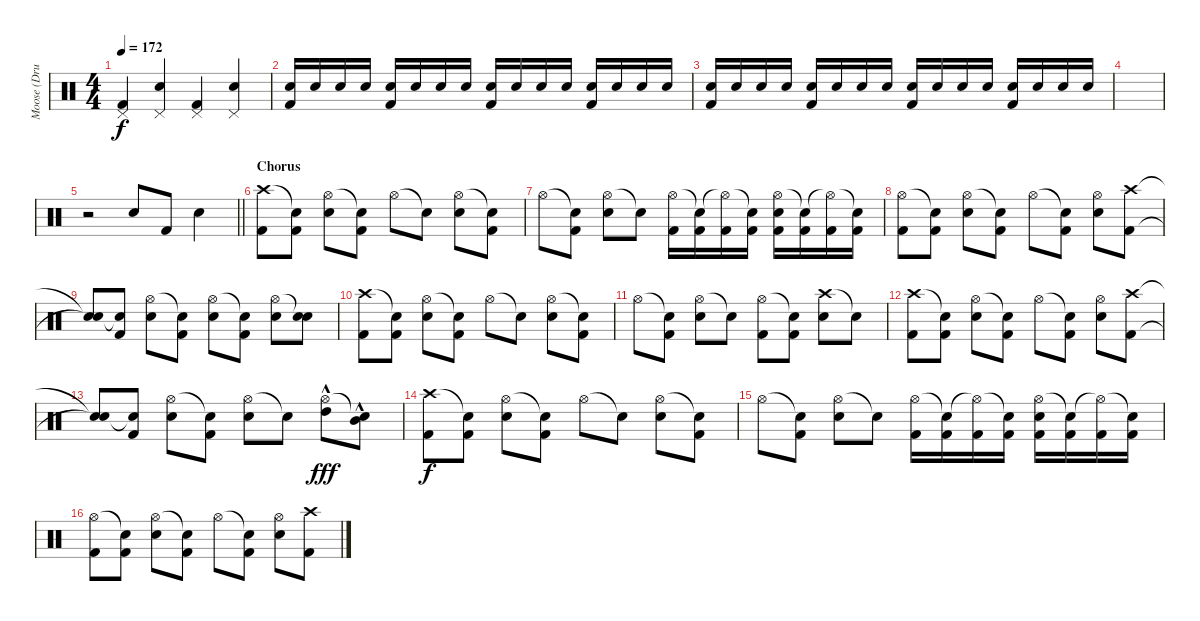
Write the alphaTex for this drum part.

\track ("Moose (Drums)" "Moose (Dru") {instrument percussion}
\staff {score}
\articulation defaults
\ts (4 4)
\tempo 172
\clef neutral
\ks c
("Pedal Hi-Hat (hit)" "Kick (hit) 2").4{dy f} ("Pedal Hi-Hat (hit)" "Electric Snare (hit)").4 ("Pedal Hi-Hat (hit)" "Kick (hit) 2").4 ("Pedal Hi-Hat (hit)" "Electric Snare (hit)").4 |
("Electric Snare (hit)" "Kick (hit) 2").16 "Electric Snare (hit)".16 "Electric Snare (hit)".16 "Electric Snare (hit)".16 ("Electric Snare (hit)" "Kick (hit) 2").16 "Electric Snare (hit)".16 "Electric Snare (hit)".16 "Electric Snare (hit)".16 ("Electric Snare (hit)" "Kick (hit) 2").16 "Electric Snare (hit)".16 "Electric Snare (hit)".16 "Electric Snare (hit)".16 ("Electric Snare (hit)" "Kick (hit) 2").16 "Electric Snare (hit)".16 "Electric Snare (hit)".16 "Electric Snare (hit)".16 |
("Electric Snare (hit)" "Kick (hit) 2").16 "Electric Snare (hit)".16 "Electric Snare (hit)".16 "Electric Snare (hit)".16 ("Electric Snare (hit)" "Kick (hit) 2").16 "Electric Snare (hit)".16 "Electric Snare (hit)".16 "Electric Snare (hit)".16 ("Electric Snare (hit)" "Kick (hit) 2").16 "Electric Snare (hit)".16 "Electric Snare (hit)".16 "Electric Snare (hit)".16 ("Electric Snare (hit)" "Kick (hit) 2").16 "Electric Snare (hit)".16 "Electric Snare (hit)".16 "Electric Snare (hit)".16 |
|
\barLineRight lightlight
r.2 "Electric Snare (hit)".8 "Kick (hit) 2".8 "Electric Snare (hit)".4 |
\section ("" "Chorus")
("Crash high (hit)" "Kick (hit) 2").8 ("Snare (hit)"{t} "Kick (hit) 2").8 ("Hi-Hat (open)" "Electric Snare (hit)").8 ("Snare (hit)"{t} "Kick (hit) 2").8 "Hi-Hat (open)".8 "Snare (hit)"{t}.8 ("Hi-Hat (open)" "Electric Snare (hit)").8 ("Snare (hit)"{t} "Kick (hit) 2").8 |
"Hi-Hat (open)".8 ("Snare (hit)"{t} "Kick (hit) 2").8 ("Hi-Hat (open)" "Electric Snare (hit)").8 "Snare (hit)"{t}.8 ("Hi-Hat (open)" "Kick (hit) 2").16 ("Snare (hit)"{t} "Kick (hit) 2").16 ("Hi-Hat (open)"{t} "Kick (hit) 2").16 ("Snare (hit)"{t} "Kick (hit) 2").16 ("Hi-Hat (open)" "Electric Snare (hit)" "Kick (hit) 2").16 ("Snare (hit)"{t} "Kick (hit) 2").16 ("Hi-Hat (open)"{t} "Kick (hit) 2").16 ("Snare (hit)"{t} "Kick (hit) 2").16 |
("Hi-Hat (open)" "Kick (hit) 2").8 ("Snare (hit)"{t} "Kick (hit) 2").8 ("Hi-Hat (open)" "Electric Snare (hit)").8 ("Snare (hit)"{t} "Kick (hit) 2").8 "Hi-Hat (open)".8 ("Snare (hit)"{t} "Kick (hit) 2").8 ("Hi-Hat (open)" "Electric Snare (hit)").8 ("Crash high (hit)" "Kick (hit) 2").8 |
("Snare (hit)"{t} "Snare (hit)"{t}).8 ("Snare (hit)"{t} "Kick (hit) 2").8 ("Hi-Hat (open)" "Electric Snare (hit)").8 ("Snare (hit)"{t} "Kick (hit) 2").8 ("Hi-Hat (open)" "Electric Snare (hit)").8 ("Snare (hit)"{t} "Kick (hit) 2").8 ("Hi-Hat (open)" "Electric Snare (hit)").8 ("Snare (hit)"{t} "Electric Snare (hit)").8 |
("Crash high (hit)" "Kick (hit) 2").8 ("Snare (hit)"{t} "Kick (hit) 2").8 ("Hi-Hat (open)" "Electric Snare (hit)").8 ("Snare (hit)"{t} "Kick (hit) 2").8 "Hi-Hat (open)".8 "Snare (hit)"{t}.8 ("Hi-Hat (open)" "Electric Snare (hit)").8 ("Snare (hit)"{t} "Kick (hit) 2").8 |
"Hi-Hat (open)".8 ("Snare (hit)"{t} "Kick (hit) 2").8 ("Hi-Hat (open)" "Electric Snare (hit)").8 "Snare (hit)"{t}.8 ("Hi-Hat (open)" "Kick (hit) 2").8 ("Snare (hit)"{t} "Kick (hit) 2").8 ("Crash high (hit)" "Electric Snare (hit)").8 "Snare (hit)"{t}.8 |
("Crash high (hit)" "Kick (hit) 2").8 ("Snare (hit)"{t} "Kick (hit) 2").8 ("Hi-Hat (open)" "Electric Snare (hit)").8 ("Snare (hit)"{t} "Kick (hit) 2").8 "Hi-Hat (open)".8 ("Snare (hit)"{t} "Kick (hit) 2").8 ("Hi-Hat (open)" "Electric Snare (hit)").8 ("Crash high (hit)" "Kick (hit) 2").8 |
("Snare (hit)"{t} "Snare (hit)"{t}).8 ("Snare (hit)"{t} "Kick (hit) 2").8 ("Hi-Hat (open)" "Electric Snare (hit)").8 ("Snare (hit)"{t} "Kick (hit) 2").8 ("Hi-Hat (open)" "Electric Snare (hit)").8 "Snare (hit)"{t}.8 ("Hi-Hat (open)" "High Tom (hit)"{hac}).8{dy fff} ("Snare (hit)"{t} "Mid Tom (hit)"{hac}).8 |
("Crash high (hit)" "Kick (hit) 2").8{dy f} ("Snare (hit)"{t} "Kick (hit) 2").8 ("Hi-Hat (open)" "Electric Snare (hit)").8 ("Snare (hit)"{t} "Kick (hit) 2").8 "Hi-Hat (open)".8 "Snare (hit)"{t}.8 ("Hi-Hat (open)" "Electric Snare (hit)").8 ("Snare (hit)"{t} "Kick (hit) 2").8 |
"Hi-Hat (open)".8 ("Snare (hit)"{t} "Kick (hit) 2").8 ("Hi-Hat (open)" "Electric Snare (hit)").8 "Snare (hit)"{t}.8 ("Hi-Hat (open)" "Kick (hit) 2").16 ("Snare (hit)"{t} "Kick (hit) 2").16 ("Hi-Hat (open)"{t} "Kick (hit) 2").16 ("Snare (hit)"{t} "Kick (hit) 2").16 ("Hi-Hat (open)" "Electric Snare (hit)" "Kick (hit) 2").16 ("Snare (hit)"{t} "Kick (hit) 2").16 ("Hi-Hat (open)"{t} "Kick (hit) 2").16 ("Snare (hit)"{t} "Kick (hit) 2").16 |
("Hi-Hat (open)" "Kick (hit) 2").8 ("Snare (hit)"{t} "Kick (hit) 2").8 ("Hi-Hat (open)" "Electric Snare (hit)").8 ("Snare (hit)"{t} "Kick (hit) 2").8 "Hi-Hat (open)".8 ("Snare (hit)"{t} "Kick (hit) 2").8 ("Hi-Hat (open)" "Electric Snare (hit)").8 ("Crash high (hit)" "Kick (hit) 2").8
